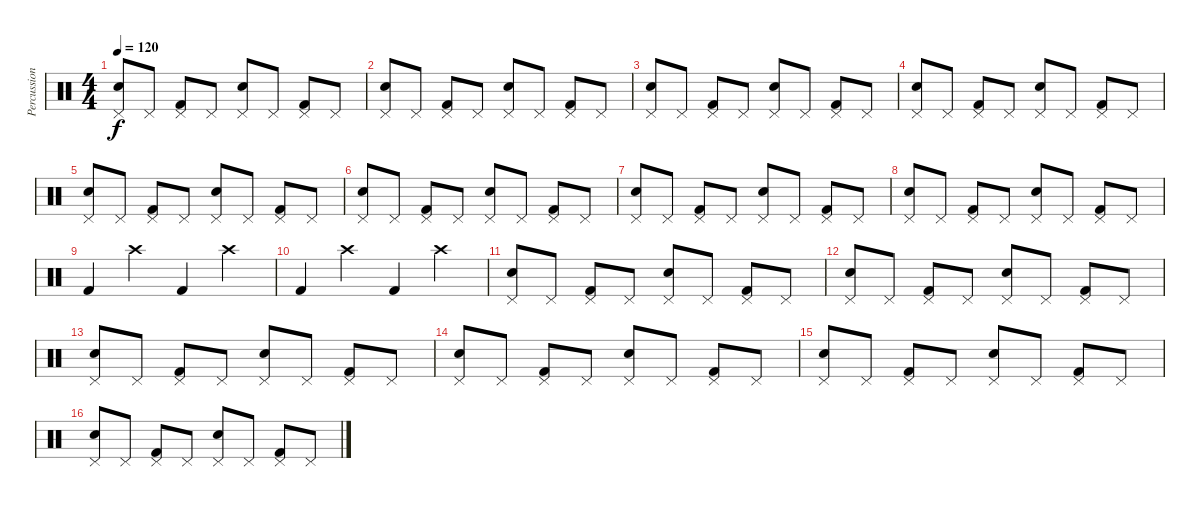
\track ("Percussion" "Percussion") {instrument percussion}
\staff {score}
\articulation defaults
\ts (4 4)
\tempo 120
\clef neutral
\ks c
("Pedal Hi-Hat (hit)" "Snare (hit) 2").8{dy f} "Pedal Hi-Hat (hit)".8 ("Pedal Hi-Hat (hit)" "Kick (hit) 2").8 "Pedal Hi-Hat (hit)".8 ("Pedal Hi-Hat (hit)" "Snare (hit) 2").8 "Pedal Hi-Hat (hit)".8 ("Pedal Hi-Hat (hit)" "Kick (hit) 2").8 "Pedal Hi-Hat (hit)".8 |
("Pedal Hi-Hat (hit)" "Snare (hit) 2").8 "Pedal Hi-Hat (hit)".8 ("Pedal Hi-Hat (hit)" "Kick (hit) 2").8 "Pedal Hi-Hat (hit)".8 ("Pedal Hi-Hat (hit)" "Snare (hit) 2").8 "Pedal Hi-Hat (hit)".8 ("Pedal Hi-Hat (hit)" "Kick (hit) 2").8 "Pedal Hi-Hat (hit)".8 |
("Pedal Hi-Hat (hit)" "Snare (hit) 2").8 "Pedal Hi-Hat (hit)".8 ("Pedal Hi-Hat (hit)" "Kick (hit) 2").8 "Pedal Hi-Hat (hit)".8 ("Pedal Hi-Hat (hit)" "Snare (hit) 2").8 "Pedal Hi-Hat (hit)".8 ("Pedal Hi-Hat (hit)" "Kick (hit) 2").8 "Pedal Hi-Hat (hit)".8 |
("Pedal Hi-Hat (hit)" "Snare (hit) 2").8 "Pedal Hi-Hat (hit)".8 ("Pedal Hi-Hat (hit)" "Kick (hit) 2").8 "Pedal Hi-Hat (hit)".8 ("Pedal Hi-Hat (hit)" "Snare (hit) 2").8 "Pedal Hi-Hat (hit)".8 ("Pedal Hi-Hat (hit)" "Kick (hit) 2").8 "Pedal Hi-Hat (hit)".8 |
("Pedal Hi-Hat (hit)" "Snare (hit) 2").8 "Pedal Hi-Hat (hit)".8 ("Pedal Hi-Hat (hit)" "Kick (hit) 2").8 "Pedal Hi-Hat (hit)".8 ("Pedal Hi-Hat (hit)" "Snare (hit) 2").8 "Pedal Hi-Hat (hit)".8 ("Pedal Hi-Hat (hit)" "Kick (hit) 2").8 "Pedal Hi-Hat (hit)".8 |
("Pedal Hi-Hat (hit)" "Snare (hit) 2").8 "Pedal Hi-Hat (hit)".8 ("Pedal Hi-Hat (hit)" "Kick (hit) 2").8 "Pedal Hi-Hat (hit)".8 ("Pedal Hi-Hat (hit)" "Snare (hit) 2").8 "Pedal Hi-Hat (hit)".8 ("Pedal Hi-Hat (hit)" "Kick (hit) 2").8 "Pedal Hi-Hat (hit)".8 |
("Pedal Hi-Hat (hit)" "Snare (hit) 2").8 "Pedal Hi-Hat (hit)".8 ("Pedal Hi-Hat (hit)" "Kick (hit) 2").8 "Pedal Hi-Hat (hit)".8 ("Pedal Hi-Hat (hit)" "Snare (hit) 2").8 "Pedal Hi-Hat (hit)".8 ("Pedal Hi-Hat (hit)" "Kick (hit) 2").8 "Pedal Hi-Hat (hit)".8 |
("Pedal Hi-Hat (hit)" "Snare (hit) 2").8 "Pedal Hi-Hat (hit)".8 ("Pedal Hi-Hat (hit)" "Kick (hit) 2").8 "Pedal Hi-Hat (hit)".8 ("Pedal Hi-Hat (hit)" "Snare (hit) 2").8 "Pedal Hi-Hat (hit)".8 ("Pedal Hi-Hat (hit)" "Kick (hit) 2").8 "Pedal Hi-Hat (hit)".8 |
"Kick (hit) 2".4 "Crash high (hit)".4 "Kick (hit) 2".4 "Crash high (hit)".4 |
"Kick (hit) 2".4 "Crash high (hit)".4 "Kick (hit) 2".4 "Crash high (hit)".4 |
("Pedal Hi-Hat (hit)" "Snare (hit) 2").8 "Pedal Hi-Hat (hit)".8 ("Pedal Hi-Hat (hit)" "Kick (hit) 2").8 "Pedal Hi-Hat (hit)".8 ("Pedal Hi-Hat (hit)" "Snare (hit) 2").8 "Pedal Hi-Hat (hit)".8 ("Pedal Hi-Hat (hit)" "Kick (hit) 2").8 "Pedal Hi-Hat (hit)".8 |
("Pedal Hi-Hat (hit)" "Snare (hit) 2").8 "Pedal Hi-Hat (hit)".8 ("Pedal Hi-Hat (hit)" "Kick (hit) 2").8 "Pedal Hi-Hat (hit)".8 ("Pedal Hi-Hat (hit)" "Snare (hit) 2").8 "Pedal Hi-Hat (hit)".8 ("Pedal Hi-Hat (hit)" "Kick (hit) 2").8 "Pedal Hi-Hat (hit)".8 |
("Pedal Hi-Hat (hit)" "Snare (hit) 2").8 "Pedal Hi-Hat (hit)".8 ("Pedal Hi-Hat (hit)" "Kick (hit) 2").8 "Pedal Hi-Hat (hit)".8 ("Pedal Hi-Hat (hit)" "Snare (hit) 2").8 "Pedal Hi-Hat (hit)".8 ("Pedal Hi-Hat (hit)" "Kick (hit) 2").8 "Pedal Hi-Hat (hit)".8 |
("Pedal Hi-Hat (hit)" "Snare (hit) 2").8 "Pedal Hi-Hat (hit)".8 ("Pedal Hi-Hat (hit)" "Kick (hit) 2").8 "Pedal Hi-Hat (hit)".8 ("Pedal Hi-Hat (hit)" "Snare (hit) 2").8 "Pedal Hi-Hat (hit)".8 ("Pedal Hi-Hat (hit)" "Kick (hit) 2").8 "Pedal Hi-Hat (hit)".8 |
("Pedal Hi-Hat (hit)" "Snare (hit) 2").8 "Pedal Hi-Hat (hit)".8 ("Pedal Hi-Hat (hit)" "Kick (hit) 2").8 "Pedal Hi-Hat (hit)".8 ("Pedal Hi-Hat (hit)" "Snare (hit) 2").8 "Pedal Hi-Hat (hit)".8 ("Pedal Hi-Hat (hit)" "Kick (hit) 2").8 "Pedal Hi-Hat (hit)".8 |
("Pedal Hi-Hat (hit)" "Snare (hit) 2").8 "Pedal Hi-Hat (hit)".8 ("Pedal Hi-Hat (hit)" "Kick (hit) 2").8 "Pedal Hi-Hat (hit)".8 ("Pedal Hi-Hat (hit)" "Snare (hit) 2").8 "Pedal Hi-Hat (hit)".8 ("Pedal Hi-Hat (hit)" "Kick (hit) 2").8 "Pedal Hi-Hat (hit)".8
